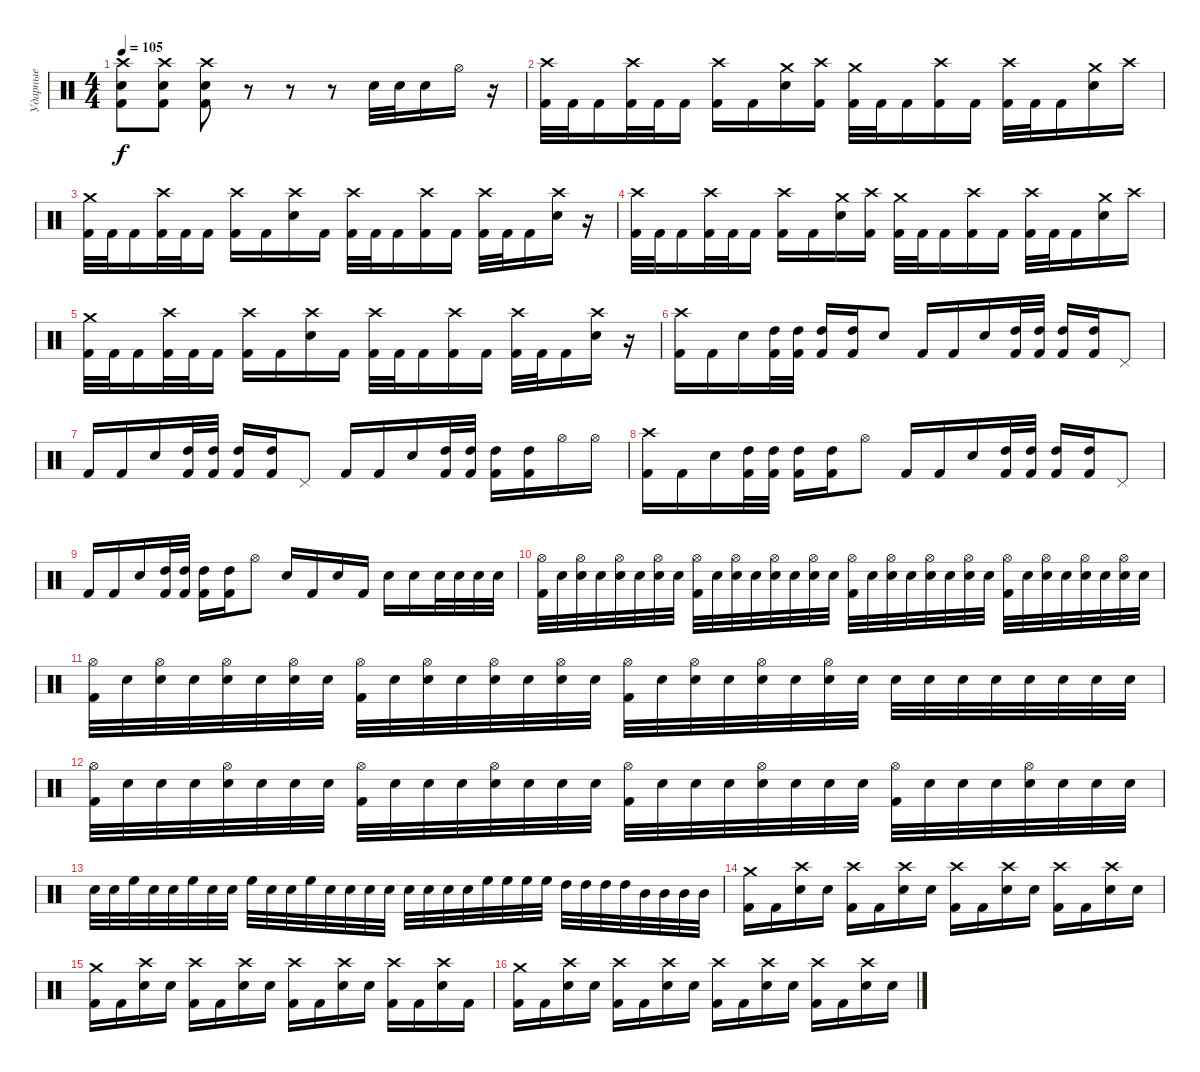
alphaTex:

\track ("Ударные" "Ударные") {instrument percussion}
\staff {score}
\articulation defaults
\ts (4 4)
\tempo 105
\clef neutral
\ks c
("Crash high (hit)" "Electric Snare (hit)" "Kick (hit) 2").8{dy f} ("Crash high (hit)" "Electric Snare (hit)" "Kick (hit) 2").8 ("Crash high (hit)" "Electric Snare (hit)" "Kick (hit) 2").8 r.8 r.8 r.8 "Electric Snare (hit)".32 "Electric Snare (hit)".32 "Electric Snare (hit)".16 "Hi-Hat (open)".16 r.16 |
("Crash high (hit)" "Kick (hit) 2").32 "Kick (hit) 2".32 "Kick (hit) 2".16 ("Crash high (hit)" "Kick (hit) 2").32 "Kick (hit) 2".32 "Kick (hit) 2".16 ("Crash high (hit)" "Kick (hit) 2").16 "Kick (hit) 2".16 ("Crash medium (hit)" "Electric Snare (hit)").16 ("Crash high (hit)" "Kick (hit) 2").16 ("Crash medium (hit)" "Kick (hit) 2").32 "Kick (hit) 2".32 "Kick (hit) 2".16 ("Crash high (hit)" "Kick (hit) 2").16 "Kick (hit) 2".16 ("Crash high (hit)" "Kick (hit) 2").32 "Kick (hit) 2".32 "Kick (hit) 2".16 ("Crash medium (hit)" "Electric Snare (hit)").16 "Crash high (hit)".16 |
("Crash medium (hit)" "Kick (hit) 2").32 "Kick (hit) 2".32 "Kick (hit) 2".16 ("Crash high (hit)" "Kick (hit) 2").32 "Kick (hit) 2".32 "Kick (hit) 2".16 ("Crash high (hit)" "Kick (hit) 2").16 "Kick (hit) 2".16 ("Crash high (hit)" "Electric Snare (hit)").16 "Kick (hit) 2".16 ("Crash high (hit)" "Kick (hit) 2").32 "Kick (hit) 2".32 "Kick (hit) 2".16 ("Crash high (hit)" "Kick (hit) 2").16 "Kick (hit) 2".16 ("Crash high (hit)" "Kick (hit) 2").32 "Kick (hit) 2".32 "Kick (hit) 2".16 ("Crash high (hit)" "Electric Snare (hit)").16 r.16 |
("Crash high (hit)" "Kick (hit) 2").32 "Kick (hit) 2".32 "Kick (hit) 2".16 ("Crash high (hit)" "Kick (hit) 2").32 "Kick (hit) 2".32 "Kick (hit) 2".16 ("Crash high (hit)" "Kick (hit) 2").16 "Kick (hit) 2".16 ("Crash medium (hit)" "Electric Snare (hit)").16 ("Crash high (hit)" "Kick (hit) 2").16 ("Crash medium (hit)" "Kick (hit) 2").32 "Kick (hit) 2".32 "Kick (hit) 2".16 ("Crash high (hit)" "Kick (hit) 2").16 "Kick (hit) 2".16 ("Crash high (hit)" "Kick (hit) 2").32 "Kick (hit) 2".32 "Kick (hit) 2".16 ("Crash medium (hit)" "Electric Snare (hit)").16 "Crash high (hit)".16 |
("Crash medium (hit)" "Kick (hit) 2").32 "Kick (hit) 2".32 "Kick (hit) 2".16 ("Crash high (hit)" "Kick (hit) 2").32 "Kick (hit) 2".32 "Kick (hit) 2".16 ("Crash high (hit)" "Kick (hit) 2").16 "Kick (hit) 2".16 ("Crash high (hit)" "Electric Snare (hit)").16 "Kick (hit) 2".16 ("Crash high (hit)" "Kick (hit) 2").32 "Kick (hit) 2".32 "Kick (hit) 2".16 ("Crash high (hit)" "Kick (hit) 2").16 "Kick (hit) 2".16 ("Crash high (hit)" "Kick (hit) 2").32 "Kick (hit) 2".32 "Kick (hit) 2".16 ("Crash high (hit)" "Electric Snare (hit)").16 r.16 |
("Crash high (hit)" "Kick (hit) 2").16 "Kick (hit) 2".16 "Electric Snare (hit)".16 ("High Tom (hit)" "Kick (hit) 2").32 ("High Tom (hit)" "Kick (hit) 2").32 ("High Tom (hit)" "Kick (hit) 2").16 ("High Tom (hit)" "Kick (hit) 2").16 "Electric Snare (hit)".8 "Kick (hit) 2".16 "Kick (hit) 2".16 "Electric Snare (hit)".16 ("High Tom (hit)" "Kick (hit) 2").32 ("High Tom (hit)" "Kick (hit) 2").32 ("High Tom (hit)" "Kick (hit) 2").16 ("High Tom (hit)" "Kick (hit) 2").16 "Pedal Hi-Hat (hit)".8 |
"Kick (hit) 2".16 "Kick (hit) 2".16 "Electric Snare (hit)".16 ("High Tom (hit)" "Kick (hit) 2").32 ("High Tom (hit)" "Kick (hit) 2").32 ("High Tom (hit)" "Kick (hit) 2").16 ("High Tom (hit)" "Kick (hit) 2").16 "Pedal Hi-Hat (hit)".8 "Kick (hit) 2".16 "Kick (hit) 2".16 "Electric Snare (hit)".16 ("High Tom (hit)" "Kick (hit) 2").32 ("High Tom (hit)" "Kick (hit) 2").32 ("High Tom (hit)" "Kick (hit) 2").16 ("High Tom (hit)" "Kick (hit) 2").16 "Hi-Hat (open)".16 "Hi-Hat (open)".16 |
("Crash high (hit)" "Kick (hit) 2").16 "Kick (hit) 2".16 "Electric Snare (hit)".16 ("High Tom (hit)" "Kick (hit) 2").32 ("High Tom (hit)" "Kick (hit) 2").32 ("High Tom (hit)" "Kick (hit) 2").16 ("High Tom (hit)" "Kick (hit) 2").16 "Hi-Hat (open)".8 "Kick (hit) 2".16 "Kick (hit) 2".16 "Electric Snare (hit)".16 ("High Tom (hit)" "Kick (hit) 2").32 ("High Tom (hit)" "Kick (hit) 2").32 ("High Tom (hit)" "Kick (hit) 2").16 ("High Tom (hit)" "Kick (hit) 2").16 "Pedal Hi-Hat (hit)".8 |
"Kick (hit) 2".16 "Kick (hit) 2".16 "Electric Snare (hit)".16 ("High Tom (hit)" "Kick (hit) 2").32 ("High Tom (hit)" "Kick (hit) 2").32 ("High Tom (hit)" "Kick (hit) 2").16 ("High Tom (hit)" "Kick (hit) 2").16 "Hi-Hat (open)".8 "Electric Snare (hit)".16 "Kick (hit) 2".16 "Electric Snare (hit)".16 "Kick (hit) 2".16 "Electric Snare (hit)".16 "Electric Snare (hit)".16 "Electric Snare (hit)".32 "Electric Snare (hit)".32 "Electric Snare (hit)".32 "Electric Snare (hit)".32 |
("Hi-Hat (open)" "Kick (hit) 2").32 "Snare (hit)".32 ("Hi-Hat (open)" "Snare (hit)").32 "Snare (hit)".32 ("Hi-Hat (open)" "Electric Snare (hit)").32 "Snare (hit)".32 ("Hi-Hat (open)" "Snare (hit)").32 "Snare (hit)".32 ("Hi-Hat (open)" "Kick (hit) 2").32 "Snare (hit)".32 ("Hi-Hat (open)" "Snare (hit)").32 "Snare (hit)".32 ("Hi-Hat (open)" "Electric Snare (hit)").32 "Snare (hit)".32 ("Hi-Hat (open)" "Snare (hit)").32 "Snare (hit)".32 ("Hi-Hat (open)" "Kick (hit) 2").32 "Snare (hit)".32 ("Hi-Hat (open)" "Snare (hit)").32 "Snare (hit)".32 ("Hi-Hat (open)" "Electric Snare (hit)").32 "Snare (hit)".32 ("Hi-Hat (open)" "Snare (hit)").32 "Snare (hit)".32 ("Hi-Hat (open)" "Kick (hit) 2").32 "Snare (hit)".32 ("Hi-Hat (open)" "Snare (hit)").32 "Snare (hit)".32 ("Hi-Hat (open)" "Electric Snare (hit)").32 "Snare (hit)".32 ("Hi-Hat (open)" "Snare (hit)").32 "Snare (hit)".32 |
("Hi-Hat (open)" "Kick (hit) 2").32 "Snare (hit)".32 ("Hi-Hat (open)" "Snare (hit)").32 "Snare (hit)".32 ("Hi-Hat (open)" "Electric Snare (hit)").32 "Snare (hit)".32 ("Hi-Hat (open)" "Snare (hit)").32 "Snare (hit)".32 ("Hi-Hat (open)" "Kick (hit) 2").32 "Snare (hit)".32 ("Hi-Hat (open)" "Snare (hit)").32 "Snare (hit)".32 ("Hi-Hat (open)" "Electric Snare (hit)").32 "Snare (hit)".32 ("Hi-Hat (open)" "Snare (hit)").32 "Snare (hit)".32 ("Hi-Hat (open)" "Kick (hit) 2").32 "Snare (hit)".32 ("Hi-Hat (open)" "Snare (hit)").32 "Snare (hit)".32 ("Hi-Hat (open)" "Electric Snare (hit)").32 "Snare (hit)".32 ("Hi-Hat (open)" "Snare (hit)").32 "Snare (hit)".32 "Electric Snare (hit)".32 "Electric Snare (hit)".32 "Electric Snare (hit)".32 "Electric Snare (hit)".32 "Electric Snare (hit)".32 "Electric Snare (hit)".32 "Electric Snare (hit)".32 "Electric Snare (hit)".32 |
("Hi-Hat (open)" "Kick (hit) 2").32 "Snare (hit)".32 "Snare (hit)".32 "Snare (hit)".32 ("Hi-Hat (open)" "Electric Snare (hit)").32 "Snare (hit)".32 "Snare (hit)".32 "Snare (hit)".32 ("Hi-Hat (open)" "Kick (hit) 2").32 "Snare (hit)".32 "Snare (hit)".32 "Snare (hit)".32 ("Hi-Hat (open)" "Electric Snare (hit)").32 "Snare (hit)".32 "Snare (hit)".32 "Snare (hit)".32 ("Hi-Hat (open)" "Kick (hit) 2").32 "Snare (hit)".32 "Snare (hit)".32 "Snare (hit)".32 ("Hi-Hat (open)" "Electric Snare (hit)").32 "Snare (hit)".32 "Snare (hit)".32 "Snare (hit)".32 ("Hi-Hat (open)" "Kick (hit) 2").32 "Snare (hit)".32 "Snare (hit)".32 "Snare (hit)".32 ("Hi-Hat (open)" "Electric Snare (hit)").32 "Snare (hit)".32 "Snare (hit)".32 "Snare (hit)".32 |
"Electric Snare (hit)".32 "Electric Snare (hit)".32 "High Floor Tom (hit)".32 "Electric Snare (hit)".32 "Electric Snare (hit)".32 "High Floor Tom (hit)".32 "Electric Snare (hit)".32 "Electric Snare (hit)".32 "High Floor Tom (hit)".32 "Electric Snare (hit)".32 "Electric Snare (hit)".32 "High Floor Tom (hit)".32 "Electric Snare (hit)".32 "Snare (hit)".32 "Electric Snare (hit)".32 "Snare (hit)".32 "Electric Snare (hit)".32 "Electric Snare (hit)".32 "Electric Snare (hit)".32 "Electric Snare (hit)".32 "High Floor Tom (hit)".32 "High Floor Tom (hit)".32 "High Floor Tom (hit)".32 "High Floor Tom (hit)".32 "High Tom (hit)".32 "High Tom (hit)".32 "High Tom (hit)".32 "High Tom (hit)".32 "Mid Tom (hit)".32 "Mid Tom (hit)".32 "Mid Tom (hit)".32 "Mid Tom (hit)".32 |
("Crash medium (hit)" "Kick (hit) 2").16 "Kick (hit) 2".16 ("Crash high (hit)" "Electric Snare (hit)").16 "Snare (hit)".16 ("Crash high (hit)" "Kick (hit) 2").16 "Kick (hit) 2".16 ("Crash high (hit)" "Electric Snare (hit)").16 "Snare (hit)".16 ("Crash high (hit)" "Kick (hit) 2").16 "Kick (hit) 2".16 ("Crash high (hit)" "Electric Snare (hit)").16 "Snare (hit)".16 ("Crash high (hit)" "Kick (hit) 2").16 "Kick (hit) 2".16 ("Crash high (hit)" "Electric Snare (hit)").16 "Snare (hit)".16 |
("Crash medium (hit)" "Kick (hit) 2").16 "Kick (hit) 2".16 ("Crash high (hit)" "Electric Snare (hit)").16 "Snare (hit)".16 ("Crash high (hit)" "Kick (hit) 2").16 "Kick (hit) 2".16 ("Crash high (hit)" "Electric Snare (hit)").16 "Snare (hit)".16 ("Crash high (hit)" "Kick (hit) 2").16 "Kick (hit) 2".16 ("Crash high (hit)" "Electric Snare (hit)").16 "Snare (hit)".16 ("Crash high (hit)" "Kick (hit) 2").16 "Kick (hit) 2".16 ("Crash high (hit)" "Electric Snare (hit)").16 "Kick (hit) 2".16 |
("Crash medium (hit)" "Kick (hit) 2").16 "Kick (hit) 2".16 ("Crash high (hit)" "Electric Snare (hit)").16 "Snare (hit)".16 ("Crash high (hit)" "Kick (hit) 2").16 "Kick (hit) 2".16 ("Crash high (hit)" "Electric Snare (hit)").16 "Snare (hit)".16 ("Crash high (hit)" "Kick (hit) 2").16 "Kick (hit) 2".16 ("Crash high (hit)" "Electric Snare (hit)").16 "Snare (hit)".16 ("Crash high (hit)" "Kick (hit) 2").16 "Kick (hit) 2".16 ("Crash high (hit)" "Electric Snare (hit)").16 "Snare (hit)".16
